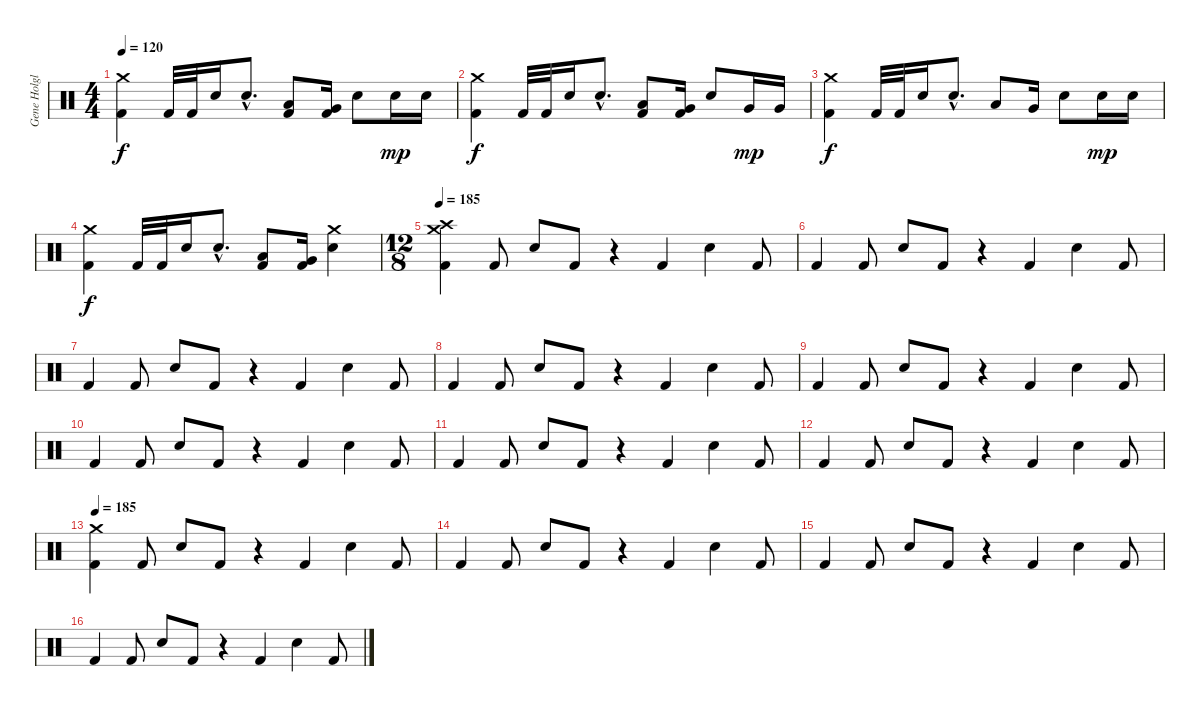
\track ("Gene Holglan" "Gene Holgl") {instrument percussion}
\staff {score}
\articulation defaults
\ts (4 4)
\tempo 120
\clef neutral
\ks c
("Crash medium (hit)" "Kick (hit) 2").4{dy f} "Kick (hit) 2".32 "Kick (hit) 2".32 "Snare (hit) 2".16 "Snare (hit) 2"{hac}.8{d} ("Low Tom (hit)" "Kick (hit) 2").8 ("Very Low Tom (hit)" "Kick (hit) 2").16 "Snare (hit) 2".8 "Snare (hit) 2".16{dy mp} "Snare (hit) 2".16 |
("Crash medium (hit)" "Kick (hit) 2").4{dy f} "Kick (hit) 2".32 "Kick (hit) 2".32 "Snare (hit) 2".16 "Snare (hit) 2"{hac}.8{d} ("Low Tom (hit)" "Kick (hit) 2").8 ("Very Low Tom (hit)" "Kick (hit) 2").16 "Snare (hit) 2".8 "Very Low Tom (hit)".16{dy mp} "Very Low Tom (hit)".16 |
("Crash medium (hit)" "Kick (hit) 2").4{dy f} "Kick (hit) 2".32 "Kick (hit) 2".32 "Snare (hit) 2".16 "Snare (hit) 2"{hac}.8{d} "Low Tom (hit)".8 "Very Low Tom (hit)".16 "Snare (hit) 2".8 "Snare (hit) 2".16{dy mp} "Snare (hit) 2".16 |
("Crash medium (hit)" "Kick (hit) 2").4{dy f} "Kick (hit) 2".32 "Kick (hit) 2".32 "Snare (hit) 2".16 "Snare (hit) 2"{hac}.8{d} ("Low Tom (hit)" "Kick (hit) 2").8 ("Very Low Tom (hit)" "Kick (hit) 2").16 ("Crash medium (hit)" "Snare (hit) 2").4 |
\ts (12 8)
\tempo 185
("Crash medium (hit)" "Crash high (hit)" "Kick (hit) 2").4 "Kick (hit) 2".8 "Snare (hit) 2".8 "Kick (hit) 2".8 r.4 "Kick (hit) 2".4 "Snare (hit) 2".4 "Kick (hit) 2".8 |
"Kick (hit) 2".4 "Kick (hit) 2".8 "Snare (hit) 2".8 "Kick (hit) 2".8 r.4 "Kick (hit) 2".4 "Snare (hit) 2".4 "Kick (hit) 2".8 |
"Kick (hit) 2".4 "Kick (hit) 2".8 "Snare (hit) 2".8 "Kick (hit) 2".8 r.4 "Kick (hit) 2".4 "Snare (hit) 2".4 "Kick (hit) 2".8 |
"Kick (hit) 2".4 "Kick (hit) 2".8 "Snare (hit) 2".8 "Kick (hit) 2".8 r.4 "Kick (hit) 2".4 "Snare (hit) 2".4 "Kick (hit) 2".8 |
"Kick (hit) 2".4 "Kick (hit) 2".8 "Snare (hit) 2".8 "Kick (hit) 2".8 r.4 "Kick (hit) 2".4 "Snare (hit) 2".4 "Kick (hit) 2".8 |
"Kick (hit) 2".4 "Kick (hit) 2".8 "Snare (hit) 2".8 "Kick (hit) 2".8 r.4 "Kick (hit) 2".4 "Snare (hit) 2".4 "Kick (hit) 2".8 |
"Kick (hit) 2".4 "Kick (hit) 2".8 "Snare (hit) 2".8 "Kick (hit) 2".8 r.4 "Kick (hit) 2".4 "Snare (hit) 2".4 "Kick (hit) 2".8 |
"Kick (hit) 2".4 "Kick (hit) 2".8 "Snare (hit) 2".8 "Kick (hit) 2".8 r.4 "Kick (hit) 2".4 "Snare (hit) 2".4 "Kick (hit) 2".8 |
\tempo 185
("Crash medium (hit)" "Kick (hit) 2").4 "Kick (hit) 2".8 "Snare (hit) 2".8 "Kick (hit) 2".8 r.4 "Kick (hit) 2".4 "Snare (hit) 2".4 "Kick (hit) 2".8 |
"Kick (hit) 2".4 "Kick (hit) 2".8 "Snare (hit) 2".8 "Kick (hit) 2".8 r.4 "Kick (hit) 2".4 "Snare (hit) 2".4 "Kick (hit) 2".8 |
"Kick (hit) 2".4 "Kick (hit) 2".8 "Snare (hit) 2".8 "Kick (hit) 2".8 r.4 "Kick (hit) 2".4 "Snare (hit) 2".4 "Kick (hit) 2".8 |
"Kick (hit) 2".4 "Kick (hit) 2".8 "Snare (hit) 2".8 "Kick (hit) 2".8 r.4 "Kick (hit) 2".4 "Snare (hit) 2".4 "Kick (hit) 2".8
